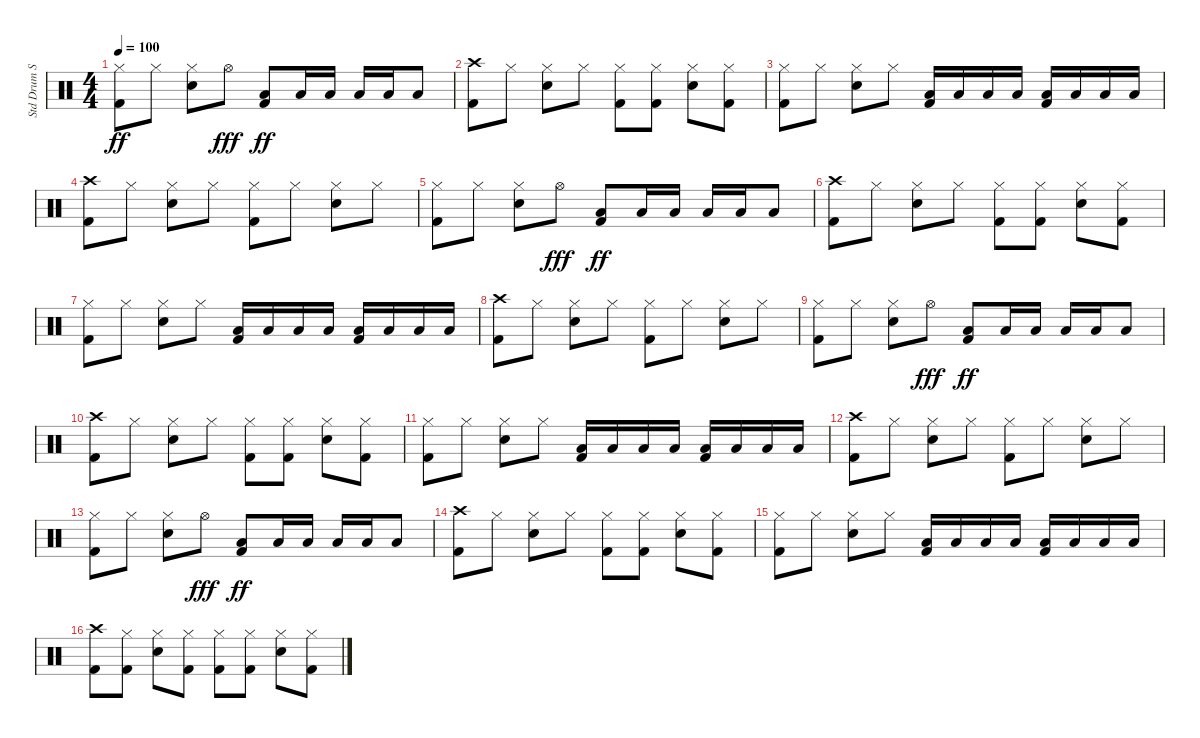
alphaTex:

\track ("Std Drum Set" "Std Drum S") {instrument percussion}
\staff {score}
\articulation defaults
\ts (4 4)
\tempo 100
\clef neutral
\ks c
("Hi-Hat (closed)" "Kick (hit) 2").8{dy ff} "Hi-Hat (closed)".8 ("Snare (hit) 2" "Hi-Hat (closed)").8 "Hi-Hat (open)".8{dy fff} ("Low Tom (hit)" "Kick (hit) 2").8{dy ff} "Low Floor Tom (hit)".16 "Low Floor Tom (hit)".16 "Low Floor Tom (hit)".16 "Low Floor Tom (hit)".16 "Low Floor Tom (hit)".8 |
("Kick (hit) 2" "Crash high (hit)").8 "Hi-Hat (closed)".8 ("Hi-Hat (closed)" "Snare (hit) 2").8 "Hi-Hat (closed)".8 ("Hi-Hat (closed)" "Kick (hit) 2").8 ("Kick (hit) 2" "Hi-Hat (closed)").8 ("Snare (hit) 2" "Hi-Hat (closed)").8 ("Kick (hit) 2" "Hi-Hat (closed)").8 |
("Kick (hit) 2" "Hi-Hat (closed)").8 "Hi-Hat (closed)".8 ("Hi-Hat (closed)" "Snare (hit) 2").8 "Hi-Hat (closed)".8 ("Low Tom (hit)" "Kick (hit) 2").16 "Low Tom (hit)".16 "Low Tom (hit)".16 "Low Tom (hit)".16 ("Kick (hit) 2" "Low Tom (hit)").16 "Low Tom (hit)".16 "Low Tom (hit)".16 "Low Tom (hit)".16 |
("Crash high (hit)" "Kick (hit) 2").8 "Hi-Hat (closed)".8 ("Snare (hit) 2" "Hi-Hat (closed)").8 "Hi-Hat (closed)".8 ("Hi-Hat (closed)" "Kick (hit) 2").8 "Hi-Hat (closed)".8 ("Snare (hit) 2" "Hi-Hat (closed)").8 "Hi-Hat (closed)".8 |
("Kick (hit) 2" "Hi-Hat (closed)").8 "Hi-Hat (closed)".8 ("Snare (hit) 2" "Hi-Hat (closed)").8 "Hi-Hat (open)".8{dy fff} ("Kick (hit) 2" "Low Tom (hit)").8{dy ff} "Low Floor Tom (hit)".16 "Low Floor Tom (hit)".16 "Low Floor Tom (hit)".16 "Low Floor Tom (hit)".16 "Low Floor Tom (hit)".8 |
("Crash high (hit)" "Kick (hit) 2").8 "Hi-Hat (closed)".8 ("Snare (hit) 2" "Hi-Hat (closed)").8 "Hi-Hat (closed)".8 ("Kick (hit) 2" "Hi-Hat (closed)").8 ("Hi-Hat (closed)" "Kick (hit) 2").8 ("Hi-Hat (closed)" "Snare (hit) 2").8 ("Kick (hit) 2" "Hi-Hat (closed)").8 |
("Kick (hit) 2" "Hi-Hat (closed)").8 "Hi-Hat (closed)".8 ("Hi-Hat (closed)" "Snare (hit) 2").8 "Hi-Hat (closed)".8 ("Low Tom (hit)" "Kick (hit) 2").16 "Low Tom (hit)".16 "Low Tom (hit)".16 "Low Tom (hit)".16 ("Low Tom (hit)" "Kick (hit) 2").16 "Low Tom (hit)".16 "Low Tom (hit)".16 "Low Tom (hit)".16 |
("Crash high (hit)" "Kick (hit) 2").8 "Hi-Hat (closed)".8 ("Snare (hit) 2" "Hi-Hat (closed)").8 "Hi-Hat (closed)".8 ("Hi-Hat (closed)" "Kick (hit) 2").8 "Hi-Hat (closed)".8 ("Hi-Hat (closed)" "Snare (hit) 2").8 "Hi-Hat (closed)".8 |
("Kick (hit) 2" "Hi-Hat (closed)").8 "Hi-Hat (closed)".8 ("Hi-Hat (closed)" "Snare (hit) 2").8 "Hi-Hat (open)".8{dy fff} ("Kick (hit) 2" "Low Tom (hit)").8{dy ff} "Low Floor Tom (hit)".16 "Low Floor Tom (hit)".16 "Low Floor Tom (hit)".16 "Low Floor Tom (hit)".16 "Low Floor Tom (hit)".8 |
("Kick (hit) 2" "Crash high (hit)").8 "Hi-Hat (closed)".8 ("Hi-Hat (closed)" "Snare (hit) 2").8 "Hi-Hat (closed)".8 ("Hi-Hat (closed)" "Kick (hit) 2").8 ("Hi-Hat (closed)" "Kick (hit) 2").8 ("Hi-Hat (closed)" "Snare (hit) 2").8 ("Hi-Hat (closed)" "Kick (hit) 2").8 |
("Hi-Hat (closed)" "Kick (hit) 2").8 "Hi-Hat (closed)".8 ("Snare (hit) 2" "Hi-Hat (closed)").8 "Hi-Hat (closed)".8 ("Kick (hit) 2" "Low Tom (hit)").16 "Low Tom (hit)".16 "Low Tom (hit)".16 "Low Tom (hit)".16 ("Low Tom (hit)" "Kick (hit) 2").16 "Low Tom (hit)".16 "Low Tom (hit)".16 "Low Tom (hit)".16 |
("Kick (hit) 2" "Crash high (hit)").8 "Hi-Hat (closed)".8 ("Snare (hit) 2" "Hi-Hat (closed)").8 "Hi-Hat (closed)".8 ("Kick (hit) 2" "Hi-Hat (closed)").8 "Hi-Hat (closed)".8 ("Hi-Hat (closed)" "Snare (hit) 2").8 "Hi-Hat (closed)".8 |
("Hi-Hat (closed)" "Kick (hit) 2").8 "Hi-Hat (closed)".8 ("Snare (hit) 2" "Hi-Hat (closed)").8 "Hi-Hat (open)".8{dy fff} ("Low Tom (hit)" "Kick (hit) 2").8{dy ff} "Low Floor Tom (hit)".16 "Low Floor Tom (hit)".16 "Low Floor Tom (hit)".16 "Low Floor Tom (hit)".16 "Low Floor Tom (hit)".8 |
("Crash high (hit)" "Kick (hit) 2").8 "Hi-Hat (closed)".8 ("Snare (hit) 2" "Hi-Hat (closed)").8 "Hi-Hat (closed)".8 ("Hi-Hat (closed)" "Kick (hit) 2").8 ("Kick (hit) 2" "Hi-Hat (closed)").8 ("Snare (hit) 2" "Hi-Hat (closed)").8 ("Kick (hit) 2" "Hi-Hat (closed)").8 |
("Hi-Hat (closed)" "Kick (hit) 2").8 "Hi-Hat (closed)".8 ("Hi-Hat (closed)" "Snare (hit) 2").8 "Hi-Hat (closed)".8 ("Kick (hit) 2" "Low Tom (hit)").16 "Low Tom (hit)".16 "Low Tom (hit)".16 "Low Tom (hit)".16 ("Low Tom (hit)" "Kick (hit) 2").16 "Low Tom (hit)".16 "Low Tom (hit)".16 "Low Tom (hit)".16 |
("Kick (hit) 2" "Crash high (hit)").8 ("Kick (hit) 2" "Hi-Hat (closed)").8 ("Snare (hit) 2" "Hi-Hat (closed)").8 ("Hi-Hat (closed)" "Kick (hit) 2").8 ("Kick (hit) 2" "Hi-Hat (closed)").8 ("Kick (hit) 2" "Hi-Hat (closed)").8 ("Snare (hit) 2" "Hi-Hat (closed)").8 ("Kick (hit) 2" "Hi-Hat (closed)").8
